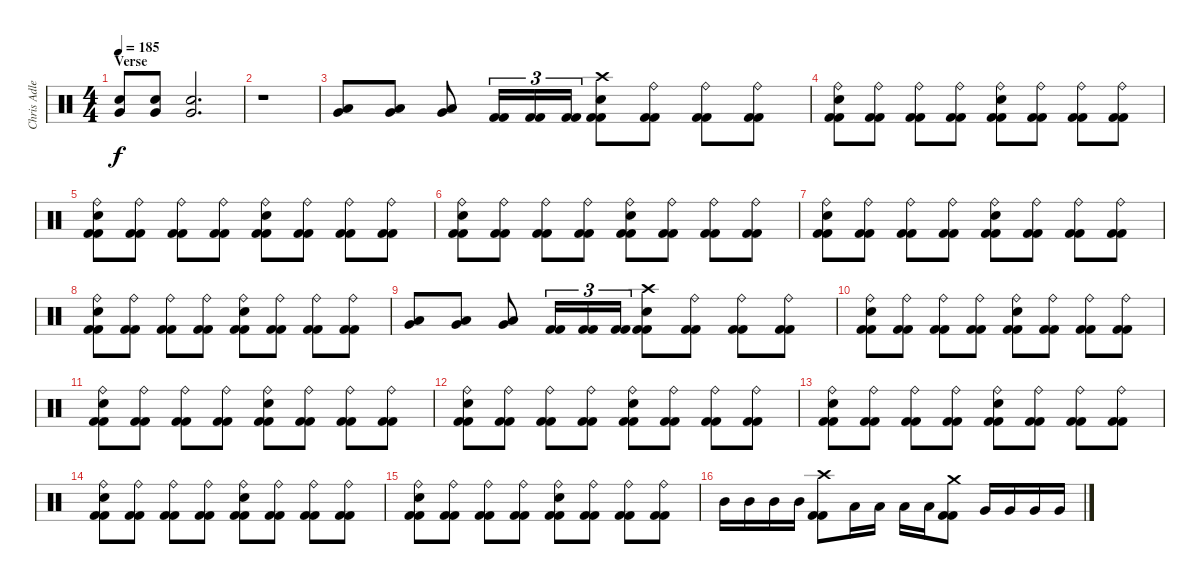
\track ("Chris Adler" "Chris Adle") {instrument percussion}
\staff {score}
\articulation defaults
\ts (4 4)
\section ("" "Verse")
\tempo 185
\clef neutral
\ks c
("Electric Snare (hit)" "Very Low Tom (hit)").8{dy f} ("Electric Snare (hit)" "Very Low Tom (hit)").8 ("Electric Snare (hit)" "Very Low Tom (hit)").2{d} |
r.1 |
("Very Low Tom (hit)" "Low Floor Tom (hit)").8 ("Very Low Tom (hit)" "Low Floor Tom (hit)").8 ("Very Low Tom (hit)" "Low Floor Tom (hit)").8 ("Kick (hit) 2" "Kick (hit) 2").16{tu (3 2)} ("Kick (hit) 2" "Kick (hit) 2").16{tu (3 2)} ("Kick (hit) 2" "Kick (hit) 2").16{tu (3 2)} ("Crash high (hit)" "Electric Snare (hit)" "Kick (hit) 2" "Kick (hit) 2").8 ("Ride (bell)" "Kick (hit) 2" "Kick (hit) 2").8 ("Ride (bell)" "Kick (hit) 2" "Kick (hit) 2").8 ("Ride (bell)" "Kick (hit) 2" "Kick (hit) 2").8 |
("Ride (bell)" "Electric Snare (hit)" "Kick (hit) 2" "Kick (hit) 2").8 ("Ride (bell)" "Kick (hit) 2" "Kick (hit) 2").8 ("Ride (bell)" "Kick (hit) 2" "Kick (hit) 2").8 ("Ride (bell)" "Kick (hit) 2" "Kick (hit) 2").8 ("Ride (bell)" "Electric Snare (hit)" "Kick (hit) 2" "Kick (hit) 2").8 ("Ride (bell)" "Kick (hit) 2" "Kick (hit) 2").8 ("Ride (bell)" "Kick (hit) 2" "Kick (hit) 2").8 ("Ride (bell)" "Kick (hit) 2" "Kick (hit) 2").8 |
("Ride (bell)" "Electric Snare (hit)" "Kick (hit) 2" "Kick (hit) 2").8 ("Ride (bell)" "Kick (hit) 2" "Kick (hit) 2").8 ("Ride (bell)" "Kick (hit) 2" "Kick (hit) 2").8 ("Ride (bell)" "Kick (hit) 2" "Kick (hit) 2").8 ("Ride (bell)" "Electric Snare (hit)" "Kick (hit) 2" "Kick (hit) 2").8 ("Ride (bell)" "Kick (hit) 2" "Kick (hit) 2").8 ("Ride (bell)" "Kick (hit) 2" "Kick (hit) 2").8 ("Ride (bell)" "Kick (hit) 2" "Kick (hit) 2").8 |
("Ride (bell)" "Electric Snare (hit)" "Kick (hit) 2" "Kick (hit) 2").8 ("Ride (bell)" "Kick (hit) 2" "Kick (hit) 2").8 ("Ride (bell)" "Kick (hit) 2" "Kick (hit) 2").8 ("Ride (bell)" "Kick (hit) 2" "Kick (hit) 2").8 ("Ride (bell)" "Electric Snare (hit)" "Kick (hit) 2" "Kick (hit) 2").8 ("Ride (bell)" "Kick (hit) 2" "Kick (hit) 2").8 ("Ride (bell)" "Kick (hit) 2" "Kick (hit) 2").8 ("Ride (bell)" "Kick (hit) 2" "Kick (hit) 2").8 |
("Ride (bell)" "Electric Snare (hit)" "Kick (hit) 2" "Kick (hit) 2").8 ("Ride (bell)" "Kick (hit) 2" "Kick (hit) 2").8 ("Ride (bell)" "Kick (hit) 2" "Kick (hit) 2").8 ("Ride (bell)" "Kick (hit) 2" "Kick (hit) 2").8 ("Ride (bell)" "Electric Snare (hit)" "Kick (hit) 2" "Kick (hit) 2").8 ("Ride (bell)" "Kick (hit) 2" "Kick (hit) 2").8 ("Ride (bell)" "Kick (hit) 2" "Kick (hit) 2").8 ("Ride (bell)" "Kick (hit) 2" "Kick (hit) 2").8 |
("Ride (bell)" "Electric Snare (hit)" "Kick (hit) 2" "Kick (hit) 2").8 ("Ride (bell)" "Kick (hit) 2" "Kick (hit) 2").8 ("Ride (bell)" "Kick (hit) 2" "Kick (hit) 2").8 ("Ride (bell)" "Kick (hit) 2" "Kick (hit) 2").8 ("Ride (bell)" "Electric Snare (hit)" "Kick (hit) 2" "Kick (hit) 2").8 ("Ride (bell)" "Kick (hit) 2" "Kick (hit) 2").8 ("Ride (bell)" "Kick (hit) 2" "Kick (hit) 2").8 ("Ride (bell)" "Kick (hit) 2" "Kick (hit) 2").8 |
("Very Low Tom (hit)" "Low Floor Tom (hit)").8 ("Very Low Tom (hit)" "Low Floor Tom (hit)").8 ("Very Low Tom (hit)" "Low Floor Tom (hit)").8 ("Kick (hit) 2" "Kick (hit) 2").16{tu (3 2)} ("Kick (hit) 2" "Kick (hit) 2").16{tu (3 2)} ("Kick (hit) 2" "Kick (hit) 2").16{tu (3 2)} ("Crash high (hit)" "Electric Snare (hit)" "Kick (hit) 2" "Kick (hit) 2").8 ("Ride (bell)" "Kick (hit) 2" "Kick (hit) 2").8 ("Ride (bell)" "Kick (hit) 2" "Kick (hit) 2").8 ("Ride (bell)" "Kick (hit) 2" "Kick (hit) 2").8 |
("Ride (bell)" "Electric Snare (hit)" "Kick (hit) 2" "Kick (hit) 2").8 ("Ride (bell)" "Kick (hit) 2" "Kick (hit) 2").8 ("Ride (bell)" "Kick (hit) 2" "Kick (hit) 2").8 ("Ride (bell)" "Kick (hit) 2" "Kick (hit) 2").8 ("Ride (bell)" "Electric Snare (hit)" "Kick (hit) 2" "Kick (hit) 2").8 ("Ride (bell)" "Kick (hit) 2" "Kick (hit) 2").8 ("Ride (bell)" "Kick (hit) 2" "Kick (hit) 2").8 ("Ride (bell)" "Kick (hit) 2" "Kick (hit) 2").8 |
("Ride (bell)" "Electric Snare (hit)" "Kick (hit) 2" "Kick (hit) 2").8 ("Ride (bell)" "Kick (hit) 2" "Kick (hit) 2").8 ("Ride (bell)" "Kick (hit) 2" "Kick (hit) 2").8 ("Ride (bell)" "Kick (hit) 2" "Kick (hit) 2").8 ("Ride (bell)" "Electric Snare (hit)" "Kick (hit) 2" "Kick (hit) 2").8 ("Ride (bell)" "Kick (hit) 2" "Kick (hit) 2").8 ("Ride (bell)" "Kick (hit) 2" "Kick (hit) 2").8 ("Ride (bell)" "Kick (hit) 2" "Kick (hit) 2").8 |
("Ride (bell)" "Electric Snare (hit)" "Kick (hit) 2" "Kick (hit) 2").8 ("Ride (bell)" "Kick (hit) 2" "Kick (hit) 2").8 ("Ride (bell)" "Kick (hit) 2" "Kick (hit) 2").8 ("Ride (bell)" "Kick (hit) 2" "Kick (hit) 2").8 ("Ride (bell)" "Electric Snare (hit)" "Kick (hit) 2" "Kick (hit) 2").8 ("Ride (bell)" "Kick (hit) 2" "Kick (hit) 2").8 ("Ride (bell)" "Kick (hit) 2" "Kick (hit) 2").8 ("Ride (bell)" "Kick (hit) 2" "Kick (hit) 2").8 |
("Ride (bell)" "Electric Snare (hit)" "Kick (hit) 2" "Kick (hit) 2").8 ("Ride (bell)" "Kick (hit) 2" "Kick (hit) 2").8 ("Ride (bell)" "Kick (hit) 2" "Kick (hit) 2").8 ("Ride (bell)" "Kick (hit) 2" "Kick (hit) 2").8 ("Ride (bell)" "Electric Snare (hit)" "Kick (hit) 2" "Kick (hit) 2").8 ("Ride (bell)" "Kick (hit) 2" "Kick (hit) 2").8 ("Ride (bell)" "Kick (hit) 2" "Kick (hit) 2").8 ("Ride (bell)" "Kick (hit) 2" "Kick (hit) 2").8 |
("Ride (bell)" "Electric Snare (hit)" "Kick (hit) 2" "Kick (hit) 2").8 ("Ride (bell)" "Kick (hit) 2" "Kick (hit) 2").8 ("Ride (bell)" "Kick (hit) 2" "Kick (hit) 2").8 ("Ride (bell)" "Kick (hit) 2" "Kick (hit) 2").8 ("Ride (bell)" "Electric Snare (hit)" "Kick (hit) 2" "Kick (hit) 2").8 ("Ride (bell)" "Kick (hit) 2" "Kick (hit) 2").8 ("Ride (bell)" "Kick (hit) 2" "Kick (hit) 2").8 ("Ride (bell)" "Kick (hit) 2" "Kick (hit) 2").8 |
("Ride (bell)" "Electric Snare (hit)" "Kick (hit) 2" "Kick (hit) 2").8 ("Ride (bell)" "Kick (hit) 2" "Kick (hit) 2").8 ("Ride (bell)" "Kick (hit) 2" "Kick (hit) 2").8 ("Ride (bell)" "Kick (hit) 2" "Kick (hit) 2").8 ("Ride (bell)" "Electric Snare (hit)" "Kick (hit) 2" "Kick (hit) 2").8 ("Ride (bell)" "Kick (hit) 2" "Kick (hit) 2").8 ("Ride (bell)" "Kick (hit) 2" "Kick (hit) 2").8 ("Ride (bell)" "Kick (hit) 2" "Kick (hit) 2").8 |
"Mid Tom (hit)".16 "Mid Tom (hit)".16 "Mid Tom (hit)".16 "Mid Tom (hit)".16 ("Crash high (hit)" "Kick (hit) 2" "Kick (hit) 2").8 "Low Tom (hit)".16 "Low Tom (hit)".16 "Low Tom (hit)".16 "Low Tom (hit)".16 ("Crash medium (hit)" "Kick (hit) 2" "Kick (hit) 2").8 "Very Low Tom (hit)".16 "Very Low Tom (hit)".16 "Very Low Tom (hit)".16 "Very Low Tom (hit)".16
